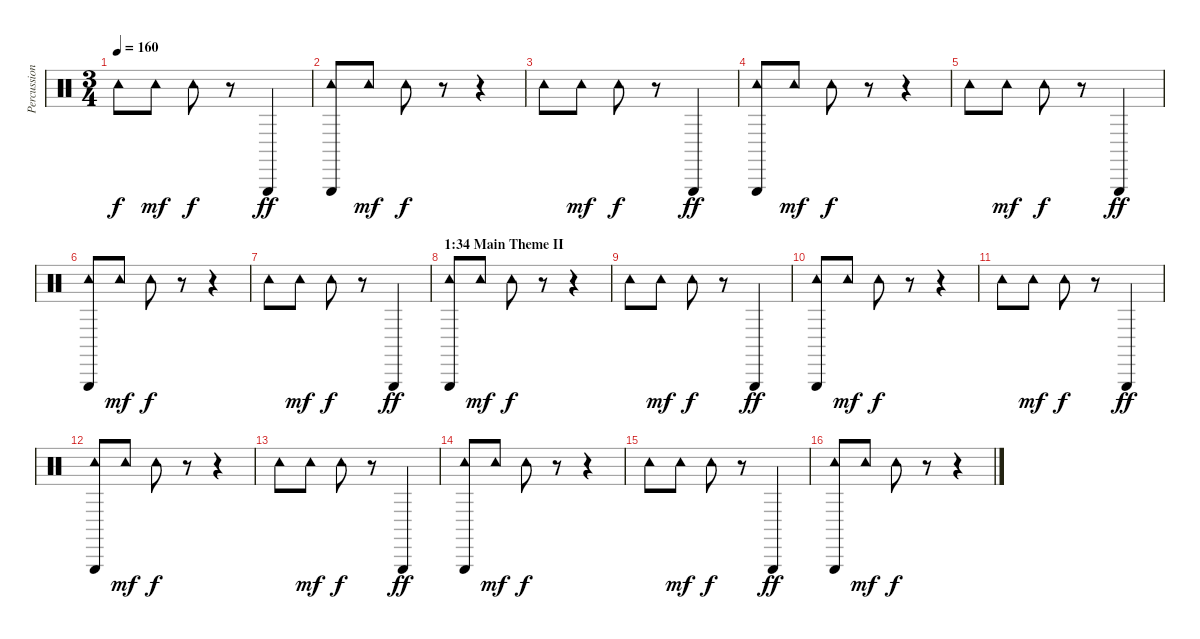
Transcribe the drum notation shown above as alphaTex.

\track ("Percussion" "Percussion") {instrument percussion}
\staff {score}
\articulation defaults
\ts (3 4)
\tempo 160
\clef neutral
\ks c "Tambourine (hit)".8{dy f} "Tambourine (hit)".8{dy mf} "Tambourine (hit)".8{dy f}
r.8 "Triangle (hit)".4{dy ff} |
("Tambourine (hit)" "Triangle (hit)").8 "Tambourine (hit)".8{dy mf} "Tambourine (hit)".8{dy f} r.8 r.4 |
"Tambourine (hit)".8 "Tambourine (hit)".8{dy mf} "Tambourine (hit)".8{dy f} r.8 "Triangle (hit)".4{dy ff} |
("Tambourine (hit)" "Triangle (hit)").8 "Tambourine (hit)".8{dy mf} "Tambourine (hit)".8{dy f} r.8 r.4 |
"Tambourine (hit)".8 "Tambourine (hit)".8{dy mf} "Tambourine (hit)".8{dy f} r.8 "Triangle (hit)".4{dy ff} |
("Tambourine (hit)" "Triangle (hit)").8 "Tambourine (hit)".8{dy mf} "Tambourine (hit)".8{dy f} r.8 r.4 |
"Tambourine (hit)".8 "Tambourine (hit)".8{dy mf} "Tambourine (hit)".8{dy f} r.8 "Triangle (hit)".4{dy ff} |
\section ("" "1:34 Main Theme II")
("Tambourine (hit)" "Triangle (hit)").8 "Tambourine (hit)".8{dy mf} "Tambourine (hit)".8{dy f} r.8 r.4 |
"Tambourine (hit)".8 "Tambourine (hit)".8{dy mf} "Tambourine (hit)".8{dy f} r.8 "Triangle (hit)".4{dy ff} |
("Tambourine (hit)" "Triangle (hit)").8 "Tambourine (hit)".8{dy mf} "Tambourine (hit)".8{dy f} r.8 r.4 |
"Tambourine (hit)".8 "Tambourine (hit)".8{dy mf} "Tambourine (hit)".8{dy f} r.8 "Triangle (hit)".4{dy ff} |
("Tambourine (hit)" "Triangle (hit)").8 "Tambourine (hit)".8{dy mf} "Tambourine (hit)".8{dy f} r.8 r.4 |
"Tambourine (hit)".8 "Tambourine (hit)".8{dy mf} "Tambourine (hit)".8{dy f} r.8 "Triangle (hit)".4{dy ff} |
("Tambourine (hit)" "Triangle (hit)").8 "Tambourine (hit)".8{dy mf} "Tambourine (hit)".8{dy f} r.8 r.4 |
"Tambourine (hit)".8 "Tambourine (hit)".8{dy mf} "Tambourine (hit)".8{dy f} r.8 "Triangle (hit)".4{dy ff} |
("Tambourine (hit)" "Triangle (hit)").8 "Tambourine (hit)".8{dy mf} "Tambourine (hit)".8{dy f} r.8 r.4
